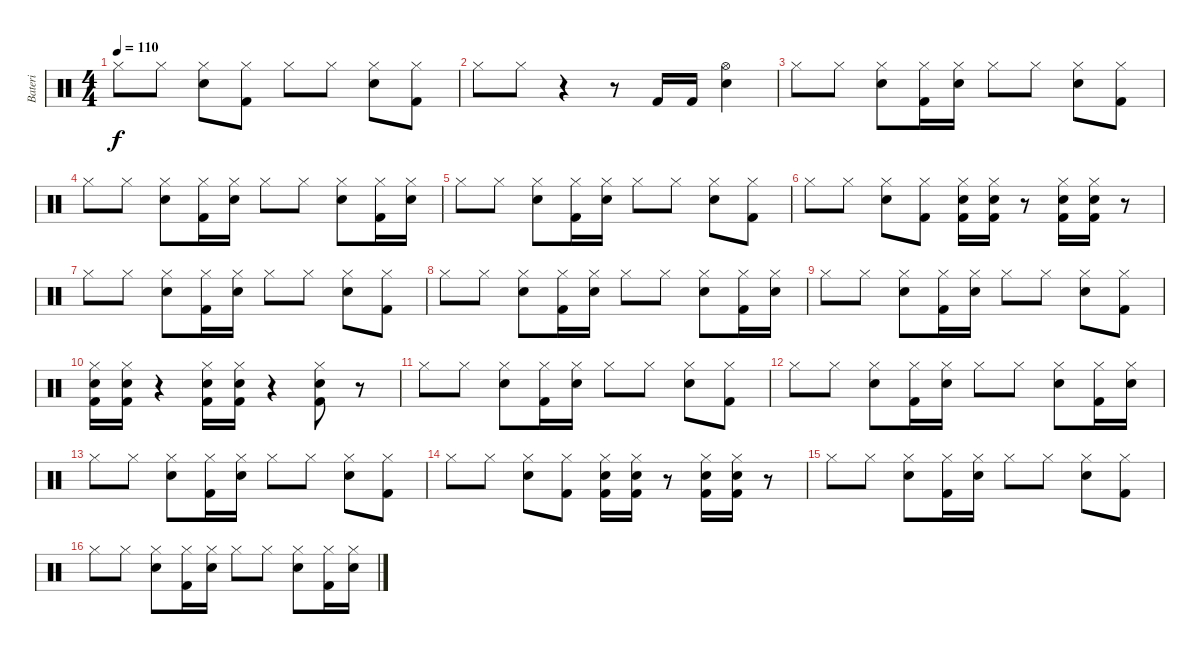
\track ("Bateri" "Bateri") {instrument percussion}
\staff {score}
\articulation defaults
\ts (4 4)
\tempo 110
\clef neutral
\ks c "Hi-Hat (closed)".8{dy f} "Hi-Hat (closed)".8
("Electric Snare (hit)" "Hi-Hat (closed)").8 ("Kick (hit) 2" "Hi-Hat (closed)").8 "Hi-Hat (closed)".8 "Hi-Hat (closed)".8 ("Electric Snare (hit)" "Hi-Hat (closed)").8 ("Kick (hit) 2" "Hi-Hat (closed)").8 |
"Hi-Hat (closed)".8 "Hi-Hat (closed)".8 r.4 r.8 "Kick (hit) 2".16 "Kick (hit) 2".16 ("Electric Snare (hit)" "Hi-Hat (open)").4 |
"Hi-Hat (closed)".8 "Hi-Hat (closed)".8 ("Electric Snare (hit)" "Hi-Hat (closed)").8 ("Kick (hit) 2" "Hi-Hat (closed)").16 ("Electric Snare (hit)" "Hi-Hat (closed)").16 "Hi-Hat (closed)".8 "Hi-Hat (closed)".8 ("Electric Snare (hit)" "Hi-Hat (closed)").8 ("Kick (hit) 2" "Hi-Hat (closed)").8 |
"Hi-Hat (closed)".8 "Hi-Hat (closed)".8 ("Electric Snare (hit)" "Hi-Hat (closed)").8 ("Kick (hit) 2" "Hi-Hat (closed)").16 ("Electric Snare (hit)" "Hi-Hat (closed)").16 "Hi-Hat (closed)".8 "Hi-Hat (closed)".8 ("Electric Snare (hit)" "Hi-Hat (closed)").8 ("Kick (hit) 2" "Hi-Hat (closed)").16 ("Electric Snare (hit)" "Hi-Hat (closed)").16 |
"Hi-Hat (closed)".8 "Hi-Hat (closed)".8 ("Electric Snare (hit)" "Hi-Hat (closed)").8 ("Kick (hit) 2" "Hi-Hat (closed)").16 ("Electric Snare (hit)" "Hi-Hat (closed)").16 "Hi-Hat (closed)".8 "Hi-Hat (closed)".8 ("Electric Snare (hit)" "Hi-Hat (closed)").8 ("Kick (hit) 2" "Hi-Hat (closed)").8 |
"Hi-Hat (closed)".8 "Hi-Hat (closed)".8 ("Electric Snare (hit)" "Hi-Hat (closed)").8 ("Kick (hit) 2" "Hi-Hat (closed)").8 ("Electric Snare (hit)" "Kick (hit) 2" "Hi-Hat (closed)").16 ("Electric Snare (hit)" "Kick (hit) 2" "Hi-Hat (closed)").16 r.8 ("Electric Snare (hit)" "Kick (hit) 2" "Hi-Hat (closed)").16 ("Electric Snare (hit)" "Kick (hit) 2" "Hi-Hat (closed)").16 r.8 |
"Hi-Hat (closed)".8 "Hi-Hat (closed)".8 ("Electric Snare (hit)" "Hi-Hat (closed)").8 ("Kick (hit) 2" "Hi-Hat (closed)").16 ("Electric Snare (hit)" "Hi-Hat (closed)").16 "Hi-Hat (closed)".8 "Hi-Hat (closed)".8 ("Electric Snare (hit)" "Hi-Hat (closed)").8 ("Kick (hit) 2" "Hi-Hat (closed)").8 |
"Hi-Hat (closed)".8 "Hi-Hat (closed)".8 ("Electric Snare (hit)" "Hi-Hat (closed)").8 ("Kick (hit) 2" "Hi-Hat (closed)").16 ("Electric Snare (hit)" "Hi-Hat (closed)").16 "Hi-Hat (closed)".8 "Hi-Hat (closed)".8 ("Electric Snare (hit)" "Hi-Hat (closed)").8 ("Kick (hit) 2" "Hi-Hat (closed)").16 ("Electric Snare (hit)" "Hi-Hat (closed)").16 |
"Hi-Hat (closed)".8 "Hi-Hat (closed)".8 ("Electric Snare (hit)" "Hi-Hat (closed)").8 ("Kick (hit) 2" "Hi-Hat (closed)").16 ("Electric Snare (hit)" "Hi-Hat (closed)").16 "Hi-Hat (closed)".8 "Hi-Hat (closed)".8 ("Electric Snare (hit)" "Hi-Hat (closed)").8 ("Kick (hit) 2" "Hi-Hat (closed)").8 |
("Electric Snare (hit)" "Kick (hit) 2" "Hi-Hat (closed)").16 ("Electric Snare (hit)" "Kick (hit) 2" "Hi-Hat (closed)").16 r.4 ("Electric Snare (hit)" "Kick (hit) 2" "Hi-Hat (closed)").16 ("Electric Snare (hit)" "Kick (hit) 2" "Hi-Hat (closed)").16 r.4 ("Electric Snare (hit)" "Kick (hit) 2" "Hi-Hat (closed)").8 r.8 |
"Hi-Hat (closed)".8 "Hi-Hat (closed)".8 ("Electric Snare (hit)" "Hi-Hat (closed)").8 ("Kick (hit) 2" "Hi-Hat (closed)").16 ("Electric Snare (hit)" "Hi-Hat (closed)").16 "Hi-Hat (closed)".8 "Hi-Hat (closed)".8 ("Electric Snare (hit)" "Hi-Hat (closed)").8 ("Kick (hit) 2" "Hi-Hat (closed)").8 |
"Hi-Hat (closed)".8 "Hi-Hat (closed)".8 ("Electric Snare (hit)" "Hi-Hat (closed)").8 ("Kick (hit) 2" "Hi-Hat (closed)").16 ("Electric Snare (hit)" "Hi-Hat (closed)").16 "Hi-Hat (closed)".8 "Hi-Hat (closed)".8 ("Electric Snare (hit)" "Hi-Hat (closed)").8 ("Kick (hit) 2" "Hi-Hat (closed)").16 ("Electric Snare (hit)" "Hi-Hat (closed)").16 |
"Hi-Hat (closed)".8 "Hi-Hat (closed)".8 ("Electric Snare (hit)" "Hi-Hat (closed)").8 ("Kick (hit) 2" "Hi-Hat (closed)").16 ("Electric Snare (hit)" "Hi-Hat (closed)").16 "Hi-Hat (closed)".8 "Hi-Hat (closed)".8 ("Electric Snare (hit)" "Hi-Hat (closed)").8 ("Kick (hit) 2" "Hi-Hat (closed)").8 |
"Hi-Hat (closed)".8 "Hi-Hat (closed)".8 ("Electric Snare (hit)" "Hi-Hat (closed)").8 ("Kick (hit) 2" "Hi-Hat (closed)").8 ("Electric Snare (hit)" "Kick (hit) 2" "Hi-Hat (closed)").16 ("Electric Snare (hit)" "Kick (hit) 2" "Hi-Hat (closed)").16 r.8 ("Electric Snare (hit)" "Kick (hit) 2" "Hi-Hat (closed)").16 ("Electric Snare (hit)" "Kick (hit) 2" "Hi-Hat (closed)").16 r.8 |
"Hi-Hat (closed)".8 "Hi-Hat (closed)".8 ("Electric Snare (hit)" "Hi-Hat (closed)").8 ("Kick (hit) 2" "Hi-Hat (closed)").16 ("Electric Snare (hit)" "Hi-Hat (closed)").16 "Hi-Hat (closed)".8 "Hi-Hat (closed)".8 ("Electric Snare (hit)" "Hi-Hat (closed)").8 ("Kick (hit) 2" "Hi-Hat (closed)").8 |
"Hi-Hat (closed)".8 "Hi-Hat (closed)".8 ("Electric Snare (hit)" "Hi-Hat (closed)").8 ("Kick (hit) 2" "Hi-Hat (closed)").16 ("Electric Snare (hit)" "Hi-Hat (closed)").16 "Hi-Hat (closed)".8 "Hi-Hat (closed)".8 ("Electric Snare (hit)" "Hi-Hat (closed)").8 ("Kick (hit) 2" "Hi-Hat (closed)").16 ("Electric Snare (hit)" "Hi-Hat (closed)").16
